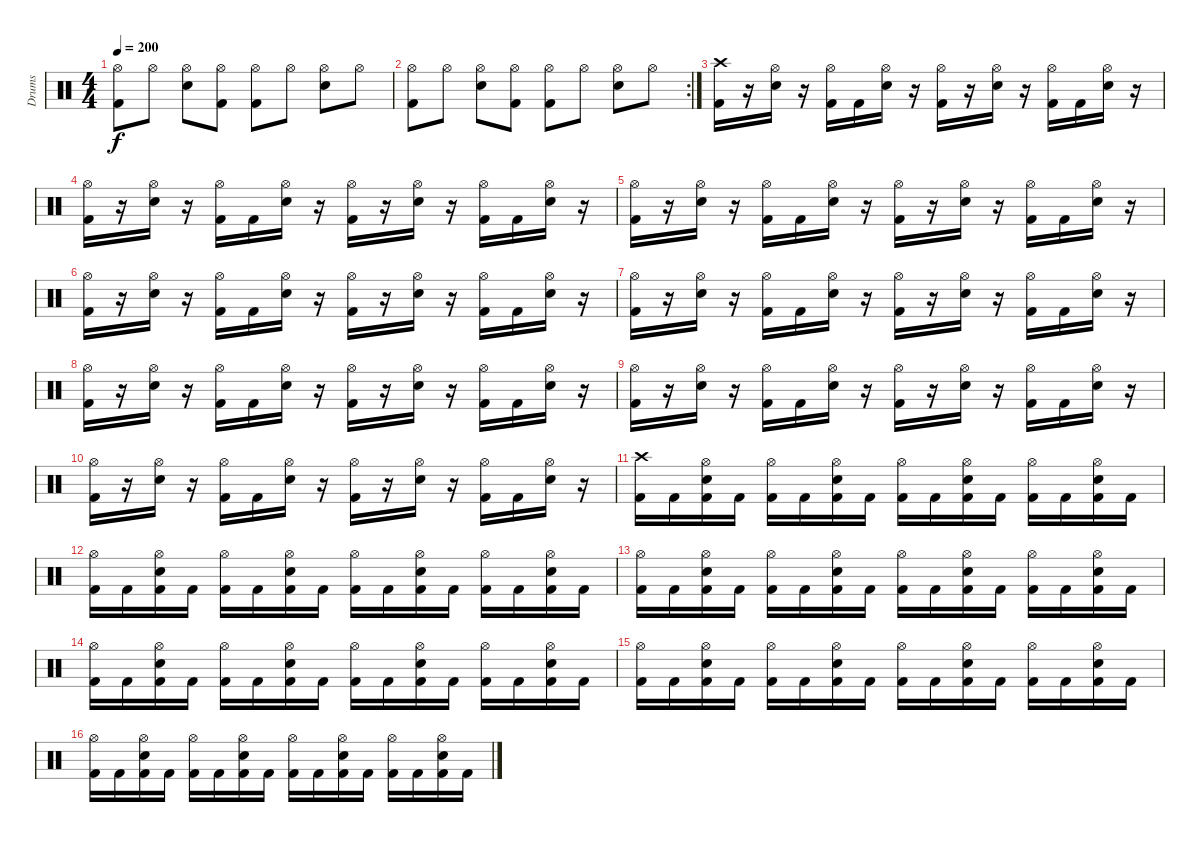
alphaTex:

\track ("Drums" "Drums") {instrument percussion}
\staff {score}
\articulation defaults
\ts (4 4)
\tempo 200
\clef neutral
\ks c
("Hi-Hat (open)" "Kick (hit) 2").8{dy f} "Hi-Hat (open)".8 ("Hi-Hat (open)" "Electric Snare (hit)").8 ("Hi-Hat (open)" "Kick (hit) 2").8 ("Hi-Hat (open)" "Kick (hit) 2").8 "Hi-Hat (open)".8 ("Hi-Hat (open)" "Electric Snare (hit)").8 "Hi-Hat (open)".8 |
\rc 2
("Hi-Hat (open)" "Kick (hit) 2").8 "Hi-Hat (open)".8 ("Hi-Hat (open)" "Electric Snare (hit)").8 ("Hi-Hat (open)" "Kick (hit) 2").8 ("Hi-Hat (open)" "Kick (hit) 2").8 "Hi-Hat (open)".8 ("Hi-Hat (open)" "Electric Snare (hit)").8 "Hi-Hat (open)".8 |
("Crash high (hit)" "Kick (hit) 2").16 r.16 ("Hi-Hat (open)" "Electric Snare (hit)").16 r.16 ("Hi-Hat (open)" "Kick (hit) 2").16 "Kick (hit) 2".16 ("Hi-Hat (open)" "Electric Snare (hit)").16 r.16 ("Hi-Hat (open)" "Kick (hit) 2").16 r.16 ("Hi-Hat (open)" "Electric Snare (hit)").16 r.16 ("Hi-Hat (open)" "Kick (hit) 2").16 "Kick (hit) 2".16 ("Hi-Hat (open)" "Electric Snare (hit)").16 r.16 |
("Hi-Hat (open)" "Kick (hit) 2").16 r.16 ("Hi-Hat (open)" "Electric Snare (hit)").16 r.16 ("Hi-Hat (open)" "Kick (hit) 2").16 "Kick (hit) 2".16 ("Hi-Hat (open)" "Electric Snare (hit)").16 r.16 ("Hi-Hat (open)" "Kick (hit) 2").16 r.16 ("Hi-Hat (open)" "Electric Snare (hit)").16 r.16 ("Hi-Hat (open)" "Kick (hit) 2").16 "Kick (hit) 2".16 ("Hi-Hat (open)" "Electric Snare (hit)").16 r.16 |
("Hi-Hat (open)" "Kick (hit) 2").16 r.16 ("Hi-Hat (open)" "Electric Snare (hit)").16 r.16 ("Hi-Hat (open)" "Kick (hit) 2").16 "Kick (hit) 2".16 ("Hi-Hat (open)" "Electric Snare (hit)").16 r.16 ("Hi-Hat (open)" "Kick (hit) 2").16 r.16 ("Hi-Hat (open)" "Electric Snare (hit)").16 r.16 ("Hi-Hat (open)" "Kick (hit) 2").16 "Kick (hit) 2".16 ("Hi-Hat (open)" "Electric Snare (hit)").16 r.16 |
("Hi-Hat (open)" "Kick (hit) 2").16 r.16 ("Hi-Hat (open)" "Electric Snare (hit)").16 r.16 ("Hi-Hat (open)" "Kick (hit) 2").16 "Kick (hit) 2".16 ("Hi-Hat (open)" "Electric Snare (hit)").16 r.16 ("Hi-Hat (open)" "Kick (hit) 2").16 r.16 ("Hi-Hat (open)" "Electric Snare (hit)").16 r.16 ("Hi-Hat (open)" "Kick (hit) 2").16 "Kick (hit) 2".16 ("Hi-Hat (open)" "Electric Snare (hit)").16 r.16 |
("Hi-Hat (open)" "Kick (hit) 2").16 r.16 ("Hi-Hat (open)" "Electric Snare (hit)").16 r.16 ("Hi-Hat (open)" "Kick (hit) 2").16 "Kick (hit) 2".16 ("Hi-Hat (open)" "Electric Snare (hit)").16 r.16 ("Hi-Hat (open)" "Kick (hit) 2").16 r.16 ("Hi-Hat (open)" "Electric Snare (hit)").16 r.16 ("Hi-Hat (open)" "Kick (hit) 2").16 "Kick (hit) 2".16 ("Hi-Hat (open)" "Electric Snare (hit)").16 r.16 |
("Hi-Hat (open)" "Kick (hit) 2").16 r.16 ("Hi-Hat (open)" "Electric Snare (hit)").16 r.16 ("Hi-Hat (open)" "Kick (hit) 2").16 "Kick (hit) 2".16 ("Hi-Hat (open)" "Electric Snare (hit)").16 r.16 ("Hi-Hat (open)" "Kick (hit) 2").16 r.16 ("Hi-Hat (open)" "Electric Snare (hit)").16 r.16 ("Hi-Hat (open)" "Kick (hit) 2").16 "Kick (hit) 2".16 ("Hi-Hat (open)" "Electric Snare (hit)").16 r.16 |
("Hi-Hat (open)" "Kick (hit) 2").16 r.16 ("Hi-Hat (open)" "Electric Snare (hit)").16 r.16 ("Hi-Hat (open)" "Kick (hit) 2").16 "Kick (hit) 2".16 ("Hi-Hat (open)" "Electric Snare (hit)").16 r.16 ("Hi-Hat (open)" "Kick (hit) 2").16 r.16 ("Hi-Hat (open)" "Electric Snare (hit)").16 r.16 ("Hi-Hat (open)" "Kick (hit) 2").16 "Kick (hit) 2".16 ("Hi-Hat (open)" "Electric Snare (hit)").16 r.16 |
("Hi-Hat (open)" "Kick (hit) 2").16 r.16 ("Hi-Hat (open)" "Electric Snare (hit)").16 r.16 ("Hi-Hat (open)" "Kick (hit) 2").16 "Kick (hit) 2".16 ("Hi-Hat (open)" "Electric Snare (hit)").16 r.16 ("Hi-Hat (open)" "Kick (hit) 2").16 r.16 ("Hi-Hat (open)" "Electric Snare (hit)").16 r.16 ("Hi-Hat (open)" "Kick (hit) 2").16 "Kick (hit) 2".16 ("Hi-Hat (open)" "Electric Snare (hit)").16 r.16 |
("Crash high (hit)" "Kick (hit) 2").16 "Kick (hit) 2".16 ("Hi-Hat (open)" "Electric Snare (hit)" "Kick (hit) 2").16 "Kick (hit) 2".16 ("Hi-Hat (open)" "Kick (hit) 2").16 "Kick (hit) 2".16 ("Hi-Hat (open)" "Electric Snare (hit)" "Kick (hit) 2").16 "Kick (hit) 2".16 ("Hi-Hat (open)" "Kick (hit) 2").16 "Kick (hit) 2".16 ("Hi-Hat (open)" "Electric Snare (hit)" "Kick (hit) 2").16 "Kick (hit) 2".16 ("Hi-Hat (open)" "Kick (hit) 2").16 "Kick (hit) 2".16 ("Hi-Hat (open)" "Electric Snare (hit)" "Kick (hit) 2").16 "Kick (hit) 2".16 |
("Hi-Hat (open)" "Kick (hit) 2").16 "Kick (hit) 2".16 ("Hi-Hat (open)" "Electric Snare (hit)" "Kick (hit) 2").16 "Kick (hit) 2".16 ("Hi-Hat (open)" "Kick (hit) 2").16 "Kick (hit) 2".16 ("Hi-Hat (open)" "Electric Snare (hit)" "Kick (hit) 2").16 "Kick (hit) 2".16 ("Hi-Hat (open)" "Kick (hit) 2").16 "Kick (hit) 2".16 ("Hi-Hat (open)" "Electric Snare (hit)" "Kick (hit) 2").16 "Kick (hit) 2".16 ("Hi-Hat (open)" "Kick (hit) 2").16 "Kick (hit) 2".16 ("Hi-Hat (open)" "Electric Snare (hit)" "Kick (hit) 2").16 "Kick (hit) 2".16 |
("Hi-Hat (open)" "Kick (hit) 2").16 "Kick (hit) 2".16 ("Hi-Hat (open)" "Electric Snare (hit)" "Kick (hit) 2").16 "Kick (hit) 2".16 ("Hi-Hat (open)" "Kick (hit) 2").16 "Kick (hit) 2".16 ("Hi-Hat (open)" "Electric Snare (hit)" "Kick (hit) 2").16 "Kick (hit) 2".16 ("Hi-Hat (open)" "Kick (hit) 2").16 "Kick (hit) 2".16 ("Hi-Hat (open)" "Electric Snare (hit)" "Kick (hit) 2").16 "Kick (hit) 2".16 ("Hi-Hat (open)" "Kick (hit) 2").16 "Kick (hit) 2".16 ("Hi-Hat (open)" "Electric Snare (hit)" "Kick (hit) 2").16 "Kick (hit) 2".16 |
("Hi-Hat (open)" "Kick (hit) 2").16 "Kick (hit) 2".16 ("Hi-Hat (open)" "Electric Snare (hit)" "Kick (hit) 2").16 "Kick (hit) 2".16 ("Hi-Hat (open)" "Kick (hit) 2").16 "Kick (hit) 2".16 ("Hi-Hat (open)" "Electric Snare (hit)" "Kick (hit) 2").16 "Kick (hit) 2".16 ("Hi-Hat (open)" "Kick (hit) 2").16 "Kick (hit) 2".16 ("Hi-Hat (open)" "Electric Snare (hit)" "Kick (hit) 2").16 "Kick (hit) 2".16 ("Hi-Hat (open)" "Kick (hit) 2").16 "Kick (hit) 2".16 ("Hi-Hat (open)" "Electric Snare (hit)" "Kick (hit) 2").16 "Kick (hit) 2".16 |
("Hi-Hat (open)" "Kick (hit) 2").16 "Kick (hit) 2".16 ("Hi-Hat (open)" "Electric Snare (hit)" "Kick (hit) 2").16 "Kick (hit) 2".16 ("Hi-Hat (open)" "Kick (hit) 2").16 "Kick (hit) 2".16 ("Hi-Hat (open)" "Electric Snare (hit)" "Kick (hit) 2").16 "Kick (hit) 2".16 ("Hi-Hat (open)" "Kick (hit) 2").16 "Kick (hit) 2".16 ("Hi-Hat (open)" "Electric Snare (hit)" "Kick (hit) 2").16 "Kick (hit) 2".16 ("Hi-Hat (open)" "Kick (hit) 2").16 "Kick (hit) 2".16 ("Hi-Hat (open)" "Electric Snare (hit)" "Kick (hit) 2").16 "Kick (hit) 2".16 |
("Hi-Hat (open)" "Kick (hit) 2").16 "Kick (hit) 2".16 ("Hi-Hat (open)" "Electric Snare (hit)" "Kick (hit) 2").16 "Kick (hit) 2".16 ("Hi-Hat (open)" "Kick (hit) 2").16 "Kick (hit) 2".16 ("Hi-Hat (open)" "Electric Snare (hit)" "Kick (hit) 2").16 "Kick (hit) 2".16 ("Hi-Hat (open)" "Kick (hit) 2").16 "Kick (hit) 2".16 ("Hi-Hat (open)" "Electric Snare (hit)" "Kick (hit) 2").16 "Kick (hit) 2".16 ("Hi-Hat (open)" "Kick (hit) 2").16 "Kick (hit) 2".16 ("Hi-Hat (open)" "Electric Snare (hit)" "Kick (hit) 2").16 "Kick (hit) 2".16
